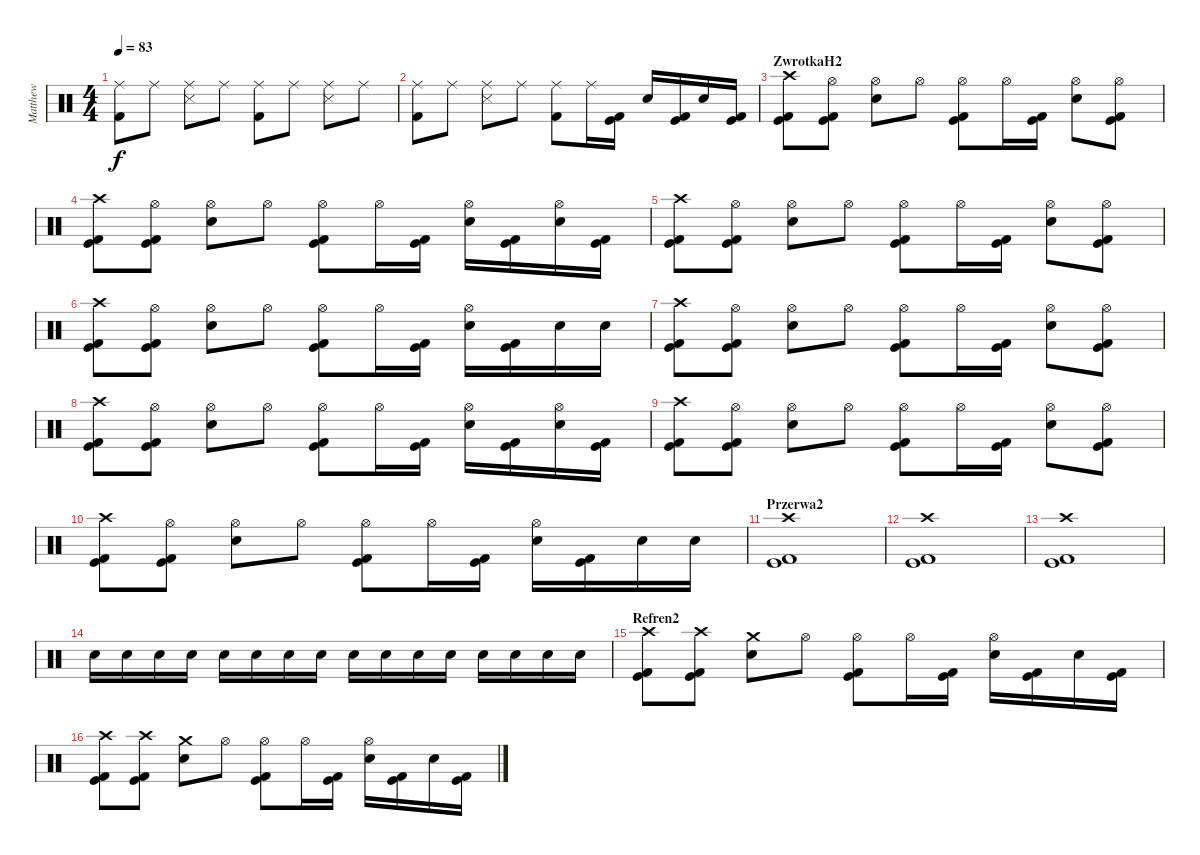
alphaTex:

\track ("Matthew" "Matthew") {instrument percussion}
\staff {score}
\articulation defaults
\ts (4 4)
\tempo 83
\clef neutral
\ks c
("Kick (hit) 2" "Ride (middle)").8{dy f} "Ride (middle)".8 ("Ride (middle)" "Snare (side stick) 3").8 "Ride (middle)".8 ("Kick (hit) 2" "Ride (middle)").8 "Ride (middle)".8 ("Ride (middle)" "Snare (side stick) 3").8 "Ride (middle)".8 |
("Kick (hit) 2" "Ride (middle)").8 "Ride (middle)".8 ("Ride (middle)" "Snare (side stick) 3").8 "Ride (middle)".8 ("Kick (hit) 2" "Ride (middle)").8 "Ride (middle)".16 ("Kick (hit) 2" "Kick (hit)").16 "Snare (hit) 2".16 ("Kick (hit) 2" "Kick (hit)").16 "Snare (hit) 2".16 ("Kick (hit) 2" "Kick (hit)").16 |
\section ("" "ZwrotkaH2")
("Kick (hit) 2" "Kick (hit)" "Crash high (hit)").8 ("Kick (hit) 2" "Kick (hit)" "Hi-Hat (open)").8 ("Snare (hit) 2" "Hi-Hat (open)").8 "Hi-Hat (open)".8 ("Hi-Hat (open)" "Kick (hit) 2" "Kick (hit)").8 "Hi-Hat (open)".16 ("Kick (hit) 2" "Kick (hit)").16 ("Snare (hit) 2" "Hi-Hat (open)").8 ("Kick (hit) 2" "Kick (hit)" "Hi-Hat (open)").8 |
("Kick (hit) 2" "Kick (hit)" "Crash high (hit)").8 ("Kick (hit) 2" "Kick (hit)" "Hi-Hat (open)").8 ("Snare (hit) 2" "Hi-Hat (open)").8 "Hi-Hat (open)".8 ("Hi-Hat (open)" "Kick (hit) 2" "Kick (hit)").8 "Hi-Hat (open)".16 ("Kick (hit) 2" "Kick (hit)").16 ("Snare (hit) 2" "Hi-Hat (open)").16 ("Kick (hit) 2" "Kick (hit)").16 ("Snare (hit) 2" "Hi-Hat (open)").16 ("Kick (hit) 2" "Kick (hit)").16 |
("Kick (hit) 2" "Kick (hit)" "Crash high (hit)").8 ("Kick (hit) 2" "Kick (hit)" "Hi-Hat (open)").8 ("Snare (hit) 2" "Hi-Hat (open)").8 "Hi-Hat (open)".8 ("Hi-Hat (open)" "Kick (hit) 2" "Kick (hit)").8 "Hi-Hat (open)".16 ("Kick (hit) 2" "Kick (hit)").16 ("Snare (hit) 2" "Hi-Hat (open)").8 ("Kick (hit) 2" "Kick (hit)" "Hi-Hat (open)").8 |
("Kick (hit) 2" "Kick (hit)" "Crash high (hit)").8 ("Kick (hit) 2" "Kick (hit)" "Hi-Hat (open)").8 ("Snare (hit) 2" "Hi-Hat (open)").8 "Hi-Hat (open)".8 ("Hi-Hat (open)" "Kick (hit) 2" "Kick (hit)").8 "Hi-Hat (open)".16 ("Kick (hit) 2" "Kick (hit)").16 ("Snare (hit) 2" "Hi-Hat (open)").16 ("Kick (hit) 2" "Kick (hit)").16 "Snare (hit) 2".16 "Snare (hit) 2".16 |
("Kick (hit) 2" "Kick (hit)" "Crash high (hit)").8 ("Kick (hit) 2" "Kick (hit)" "Hi-Hat (open)").8 ("Snare (hit) 2" "Hi-Hat (open)").8 "Hi-Hat (open)".8 ("Hi-Hat (open)" "Kick (hit) 2" "Kick (hit)").8 "Hi-Hat (open)".16 ("Kick (hit) 2" "Kick (hit)").16 ("Snare (hit) 2" "Hi-Hat (open)").8 ("Kick (hit) 2" "Kick (hit)" "Hi-Hat (open)").8 |
("Kick (hit) 2" "Kick (hit)" "Crash high (hit)").8 ("Kick (hit) 2" "Kick (hit)" "Hi-Hat (open)").8 ("Snare (hit) 2" "Hi-Hat (open)").8 "Hi-Hat (open)".8 ("Hi-Hat (open)" "Kick (hit) 2" "Kick (hit)").8 "Hi-Hat (open)".16 ("Kick (hit) 2" "Kick (hit)").16 ("Snare (hit) 2" "Hi-Hat (open)").16 ("Kick (hit) 2" "Kick (hit)").16 ("Snare (hit) 2" "Hi-Hat (open)").16 ("Kick (hit) 2" "Kick (hit)").16 |
("Kick (hit) 2" "Kick (hit)" "Crash high (hit)").8 ("Kick (hit) 2" "Kick (hit)" "Hi-Hat (open)").8 ("Snare (hit) 2" "Hi-Hat (open)").8 "Hi-Hat (open)".8 ("Hi-Hat (open)" "Kick (hit) 2" "Kick (hit)").8 "Hi-Hat (open)".16 ("Kick (hit) 2" "Kick (hit)").16 ("Snare (hit) 2" "Hi-Hat (open)").8 ("Kick (hit) 2" "Kick (hit)" "Hi-Hat (open)").8 |
("Kick (hit) 2" "Kick (hit)" "Crash high (hit)").8 ("Kick (hit) 2" "Kick (hit)" "Hi-Hat (open)").8 ("Snare (hit) 2" "Hi-Hat (open)").8 "Hi-Hat (open)".8 ("Hi-Hat (open)" "Kick (hit) 2" "Kick (hit)").8 "Hi-Hat (open)".16 ("Kick (hit) 2" "Kick (hit)").16 ("Snare (hit) 2" "Hi-Hat (open)").16 ("Kick (hit) 2" "Kick (hit)").16 "Snare (hit) 2".16 "Snare (hit) 2".16 |
\section ("" "Przerwa2")
("Kick (hit) 2" "Kick (hit)" "Crash high (hit)").1 |
("Kick (hit) 2" "Kick (hit)" "Crash high (hit)").1 |
("Kick (hit) 2" "Kick (hit)" "Crash high (hit)").1 |
"Snare (hit) 2".16 "Snare (hit) 2".16 "Snare (hit) 2".16 "Snare (hit) 2".16 "Snare (hit) 2".16 "Snare (hit) 2".16 "Snare (hit) 2".16 "Snare (hit) 2".16 "Snare (hit) 2".16 "Snare (hit) 2".16 "Snare (hit) 2".16 "Snare (hit) 2".16 "Snare (hit) 2".16 "Snare (hit) 2".16 "Snare (hit) 2".16 "Snare (hit) 2".16 |
\section ("" "Refren2")
("Kick (hit) 2" "Kick (hit)" "Crash high (hit)").8 ("Kick (hit)" "Kick (hit) 2" "Crash high (hit)").8 ("Snare (hit) 2" "Crash medium (hit)").8 "Hi-Hat (open)".8 ("Kick (hit) 2" "Kick (hit)" "Hi-Hat (open)").8 "Hi-Hat (open)".16 ("Kick (hit) 2" "Kick (hit)").16 ("Snare (hit) 2" "Hi-Hat (open)").16 ("Kick (hit) 2" "Kick (hit)").16 "Snare (hit) 2".16 ("Kick (hit) 2" "Kick (hit)").16 |
("Kick (hit) 2" "Kick (hit)" "Crash high (hit)").8 ("Kick (hit)" "Kick (hit) 2" "Crash high (hit)").8 ("Snare (hit) 2" "Crash medium (hit)").8 "Hi-Hat (open)".8 ("Kick (hit) 2" "Kick (hit)" "Hi-Hat (open)").8 "Hi-Hat (open)".16 ("Kick (hit) 2" "Kick (hit)").16 ("Snare (hit) 2" "Hi-Hat (open)").16 ("Kick (hit) 2" "Kick (hit)").16 "Snare (hit) 2".16 ("Kick (hit) 2" "Kick (hit)").16
